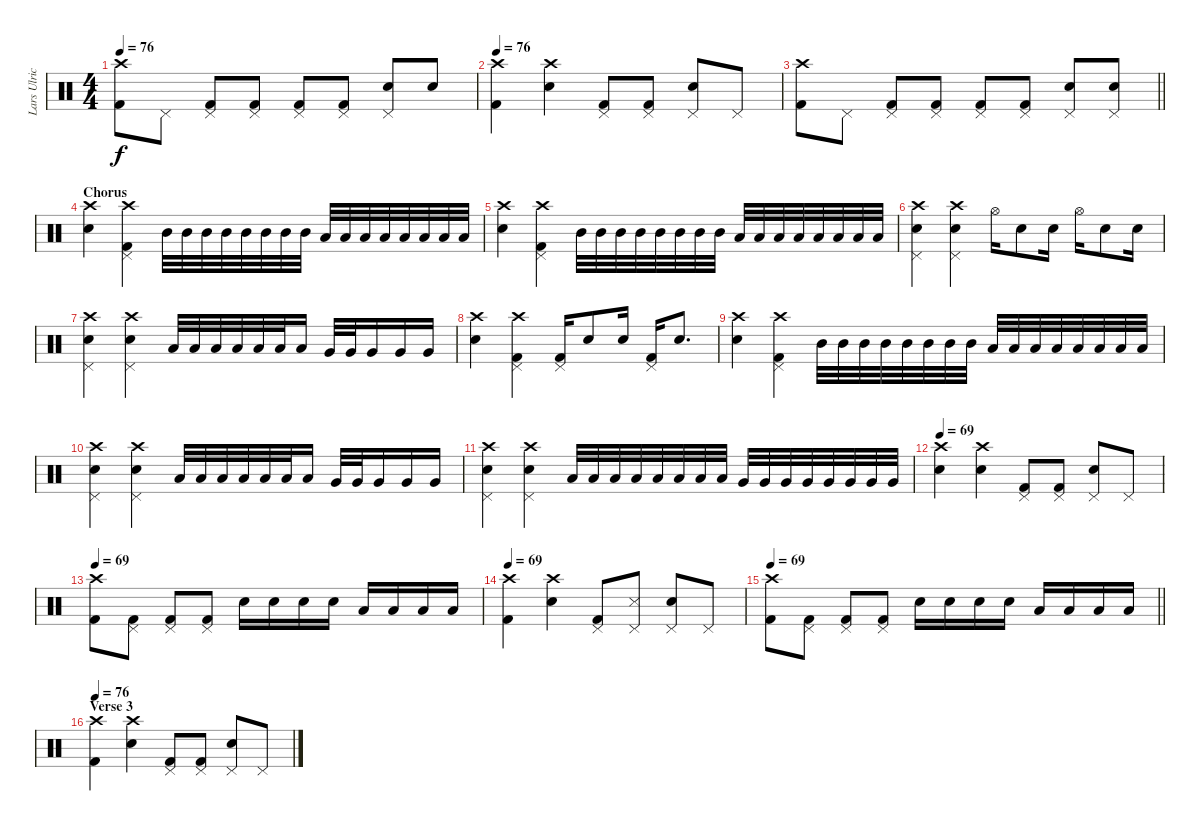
\track ("Lars Ulrich" "Lars Ulric") {instrument percussion}
\staff {score}
\articulation defaults
\ts (4 4)
\tempo 76
\clef neutral
\ks c
("Crash high (hit)" "Kick (hit) 2").8{dy f} "Pedal Hi-Hat (hit)".8 ("Pedal Hi-Hat (hit)" "Kick (hit) 2").8 ("Pedal Hi-Hat (hit)" "Kick (hit) 2").8 ("Pedal Hi-Hat (hit)" "Kick (hit) 2").8 ("Pedal Hi-Hat (hit)" "Kick (hit) 2").8 ("Pedal Hi-Hat (hit)" "Snare (hit) 2").8 "Snare (hit) 2".8 |
\tempo 76
("Crash high (hit)" "Kick (hit) 2").4 ("Crash high (hit)" "Snare (hit) 2").4 ("Pedal Hi-Hat (hit)" "Kick (hit) 2").8 ("Pedal Hi-Hat (hit)" "Kick (hit) 2").8 ("Pedal Hi-Hat (hit)" "Snare (hit) 2").8 "Pedal Hi-Hat (hit)".8 |
\barLineRight lightlight
("Crash high (hit)" "Kick (hit) 2").8 "Pedal Hi-Hat (hit)".8 ("Pedal Hi-Hat (hit)" "Kick (hit) 2").8 ("Pedal Hi-Hat (hit)" "Kick (hit) 2").8 ("Pedal Hi-Hat (hit)" "Kick (hit) 2").8 ("Pedal Hi-Hat (hit)" "Kick (hit) 2").8 ("Pedal Hi-Hat (hit)" "Snare (hit) 2").8 ("Pedal Hi-Hat (hit)" "Snare (hit) 2").8 |
\section ("" "Chorus")
("Crash high (hit)" "Snare (hit) 2").4 ("Pedal Hi-Hat (hit)" "Crash high (hit)" "Kick (hit) 2").4 "Mid Tom (hit)".32 "Mid Tom (hit)".32 "Mid Tom (hit)".32 "Mid Tom (hit)".32 "Mid Tom (hit)".32 "Mid Tom (hit)".32 "Mid Tom (hit)".32 "Mid Tom (hit)".32 "Low Tom (hit)".32 "Low Tom (hit)".32 "Low Tom (hit)".32 "Low Tom (hit)".32 "Low Tom (hit)".32 "Low Tom (hit)".32 "Low Tom (hit)".32 "Low Tom (hit)".32 |
("Crash high (hit)" "Snare (hit) 2").4 ("Pedal Hi-Hat (hit)" "Crash high (hit)" "Kick (hit) 2").4 "Mid Tom (hit)".32 "Mid Tom (hit)".32 "Mid Tom (hit)".32 "Mid Tom (hit)".32 "Mid Tom (hit)".32 "Mid Tom (hit)".32 "Mid Tom (hit)".32 "Mid Tom (hit)".32 "Low Tom (hit)".32 "Low Tom (hit)".32 "Low Tom (hit)".32 "Low Tom (hit)".32 "Low Tom (hit)".32 "Low Tom (hit)".32 "Low Tom (hit)".32 "Low Tom (hit)".32 |
("Pedal Hi-Hat (hit)" "Crash high (hit)" "Snare (hit) 2").4 ("Pedal Hi-Hat (hit)" "Crash high (hit)" "Snare (hit) 2").4 "Hi-Hat (open)".16 "Snare (hit) 2".8 "Snare (hit) 2".16 "Hi-Hat (open)".16 "Snare (hit) 2".8 "Snare (hit) 2".16 |
("Pedal Hi-Hat (hit)" "Crash high (hit)" "Snare (hit) 2").4 ("Pedal Hi-Hat (hit)" "Crash high (hit)" "Snare (hit) 2").4 "Low Tom (hit)".32 "Low Tom (hit)".32 "Low Tom (hit)".32 "Low Tom (hit)".32 "Low Tom (hit)".32 "Low Tom (hit)".32 "Low Tom (hit)".16 "Very Low Tom (hit)".32 "Very Low Tom (hit)".32 "Very Low Tom (hit)".16 "Very Low Tom (hit)".16 "Very Low Tom (hit)".16 |
("Crash high (hit)" "Snare (hit) 2").4 ("Pedal Hi-Hat (hit)" "Crash high (hit)" "Kick (hit) 2").4 ("Pedal Hi-Hat (hit)" "Kick (hit) 2").16 "Snare (hit) 2".8 "Snare (hit) 2".16 ("Pedal Hi-Hat (hit)" "Kick (hit) 2").16 "Snare (hit) 2".8{d} |
("Crash high (hit)" "Snare (hit) 2").4 ("Pedal Hi-Hat (hit)" "Crash high (hit)" "Kick (hit) 2").4 "Mid Tom (hit)".32 "Mid Tom (hit)".32 "Mid Tom (hit)".32 "Mid Tom (hit)".32 "Mid Tom (hit)".32 "Mid Tom (hit)".32 "Mid Tom (hit)".32 "Mid Tom (hit)".32 "Low Tom (hit)".32 "Low Tom (hit)".32 "Low Tom (hit)".32 "Low Tom (hit)".32 "Low Tom (hit)".32 "Low Tom (hit)".32 "Low Tom (hit)".32 "Low Tom (hit)".32 |
("Pedal Hi-Hat (hit)" "Crash high (hit)" "Snare (hit) 2").4 ("Pedal Hi-Hat (hit)" "Crash high (hit)" "Snare (hit) 2").4 "Low Tom (hit)".32 "Low Tom (hit)".32 "Low Tom (hit)".32 "Low Tom (hit)".32 "Low Tom (hit)".32 "Low Tom (hit)".32 "Low Tom (hit)".16 "Very Low Tom (hit)".32 "Very Low Tom (hit)".32 "Very Low Tom (hit)".16 "Very Low Tom (hit)".16 "Very Low Tom (hit)".16 |
("Pedal Hi-Hat (hit)" "Crash high (hit)" "Snare (hit) 2").4 ("Pedal Hi-Hat (hit)" "Crash high (hit)" "Snare (hit) 2").4 "Low Tom (hit)".32 "Low Tom (hit)".32 "Low Tom (hit)".32 "Low Tom (hit)".32 "Low Tom (hit)".32 "Low Tom (hit)".32 "Low Tom (hit)".32 "Low Tom (hit)".32 "Very Low Tom (hit)".32 "Very Low Tom (hit)".32 "Very Low Tom (hit)".32 "Very Low Tom (hit)".32 "Very Low Tom (hit)".32 "Very Low Tom (hit)".32 "Very Low Tom (hit)".32 "Very Low Tom (hit)".32 |
\tempo 69
("Crash high (hit)" "Snare (hit) 2").4 ("Crash high (hit)" "Snare (hit) 2").4 ("Pedal Hi-Hat (hit)" "Kick (hit) 2").8 ("Pedal Hi-Hat (hit)" "Kick (hit) 2").8 ("Pedal Hi-Hat (hit)" "Snare (hit) 2").8 "Pedal Hi-Hat (hit)".8 |
\tempo 69
("Crash high (hit)" "Kick (hit) 2").8 ("Pedal Hi-Hat (hit)" "Kick (hit) 2").8 ("Pedal Hi-Hat (hit)" "Kick (hit) 2").8 ("Pedal Hi-Hat (hit)" "Kick (hit) 2").8 "Snare (hit) 2".16 "Snare (hit) 2".16 "Snare (hit) 2".16 "Snare (hit) 2".16 "Low Tom (hit)".16 "Low Tom (hit)".16 "Low Tom (hit)".16 "Low Tom (hit)".16 |
\tempo 69
("Crash high (hit)" "Kick (hit) 2").4 ("Crash high (hit)" "Snare (hit) 2").4 ("Pedal Hi-Hat (hit)" "Kick (hit) 2").8 ("Pedal Hi-Hat (hit)" "Metronome (hit)").8 ("Pedal Hi-Hat (hit)" "Snare (hit) 2").8 "Pedal Hi-Hat (hit)".8 |
\tempo 69
\barLineRight lightlight
("Crash high (hit)" "Kick (hit) 2").8 ("Pedal Hi-Hat (hit)" "Kick (hit) 2").8 ("Pedal Hi-Hat (hit)" "Kick (hit) 2").8 ("Pedal Hi-Hat (hit)" "Kick (hit) 2").8 "Snare (hit) 2".16 "Snare (hit) 2".16 "Snare (hit) 2".16 "Snare (hit) 2".16 "Low Tom (hit)".16 "Low Tom (hit)".16 "Low Tom (hit)".16 "Low Tom (hit)".16 |
\section ("" "Verse 3")
\tempo 76
("Crash high (hit)" "Kick (hit) 2").4 ("Crash high (hit)" "Snare (hit) 2").4 ("Pedal Hi-Hat (hit)" "Kick (hit) 2").8 ("Pedal Hi-Hat (hit)" "Kick (hit) 2").8 ("Pedal Hi-Hat (hit)" "Snare (hit) 2").8 "Pedal Hi-Hat (hit)".8
